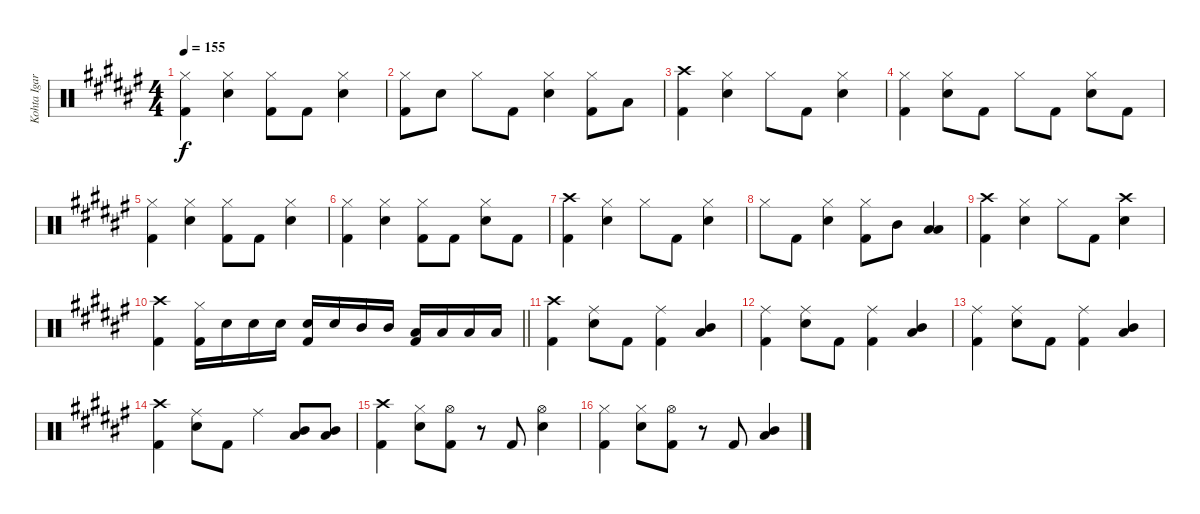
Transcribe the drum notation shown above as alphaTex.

\track ("Kohta Igarashi" "Kohta Igar") {instrument percussion}
\staff {score}
\articulation defaults
\ts (4 4)
\tempo 155
\clef neutral
\ks f#
("Hi-Hat (closed)" "Kick (hit) 2").4{dy f} ("Hi-Hat (closed)" "Electric Snare (hit)").4 ("Hi-Hat (closed)" "Kick (hit) 2").8 "Kick (hit) 2".8 ("Hi-Hat (closed)" "Electric Snare (hit)").4 |
("Hi-Hat (closed)" "Kick (hit) 2").8 "Electric Snare (hit)".8 "Hi-Hat (closed)".8 "Kick (hit) 2".8 ("Hi-Hat (closed)" "Electric Snare (hit)").4 ("Hi-Hat (closed)" "Kick (hit) 2").8 "Low Tom (hit)".8 |
("Crash high (hit)" "Kick (hit) 2").4 ("Hi-Hat (closed)" "Electric Snare (hit)").4 "Hi-Hat (closed)".8 "Kick (hit) 2".8 ("Hi-Hat (closed)" "Electric Snare (hit)").4 |
("Hi-Hat (closed)" "Kick (hit) 2").4 ("Hi-Hat (closed)" "Electric Snare (hit)").8 "Kick (hit) 2".8 "Hi-Hat (closed)".8 "Kick (hit) 2".8 ("Hi-Hat (closed)" "Electric Snare (hit)").8 "Kick (hit) 2".8 |
("Hi-Hat (closed)" "Kick (hit) 2").4 ("Hi-Hat (closed)" "Electric Snare (hit)").4 ("Hi-Hat (closed)" "Kick (hit) 2").8 "Kick (hit) 2".8 ("Hi-Hat (closed)" "Electric Snare (hit)").4 |
("Hi-Hat (closed)" "Kick (hit) 2").4 ("Hi-Hat (closed)" "Electric Snare (hit)").4 ("Hi-Hat (closed)" "Kick (hit) 2").8 "Kick (hit) 2".8 ("Hi-Hat (closed)" "Electric Snare (hit)").8 "Kick (hit) 2".8 |
("Crash high (hit)" "Kick (hit) 2").4 ("Hi-Hat (closed)" "Electric Snare (hit)").4 "Hi-Hat (closed)".8 "Kick (hit) 2".8 ("Hi-Hat (closed)" "Electric Snare (hit)").4 |
"Hi-Hat (closed)".8 "Kick (hit) 2".8 ("Hi-Hat (closed)" "Electric Snare (hit)").4 ("Hi-Hat (closed)" "Kick (hit) 2").8 "Mid Tom (hit)".8 ("Low Tom (hit)" "Low Floor Tom (hit)").4 |
("Crash high (hit)" "Kick (hit) 2").4 ("Hi-Hat (closed)" "Electric Snare (hit)").4 "Hi-Hat (closed)".8 "Kick (hit) 2".8 ("Crash high (hit)" "Electric Snare (hit)").4 |
\barLineRight lightlight
("Crash high (hit)" "Kick (hit) 2").4 ("Hi-Hat (closed)" "Kick (hit) 2").16 "Electric Snare (hit)".16 "Electric Snare (hit)".16 "Electric Snare (hit)".16 ("Electric Snare (hit)" "Kick (hit) 2").16 "Electric Snare (hit)".16 "Mid Tom (hit)".16 "Mid Tom (hit)".16 ("Low Tom (hit)" "Kick (hit) 2").16 "Low Tom (hit)".16 "Low Floor Tom (hit)".16 "Low Floor Tom (hit)".16 |
("Crash high (hit)" "Kick (hit) 2").4 ("Ride (middle)" "Electric Snare (hit)").8 "Kick (hit) 2".8 ("Ride (middle)" "Kick (hit) 2").4 ("Mid Tom (hit)" "Low Floor Tom (hit)").4 |
("Ride (middle)" "Kick (hit) 2").4 ("Ride (middle)" "Electric Snare (hit)").8 "Kick (hit) 2".8 ("Ride (middle)" "Kick (hit) 2").4 ("Mid Tom (hit)" "Low Floor Tom (hit)").4 |
("Ride (middle)" "Kick (hit) 2").4 ("Ride (middle)" "Electric Snare (hit)").8 "Kick (hit) 2".8 ("Ride (middle)" "Kick (hit) 2").4 ("Mid Tom (hit)" "Low Floor Tom (hit)").4 |
("Crash high (hit)" "Kick (hit) 2").4 ("Ride (middle)" "Electric Snare (hit)").8 "Kick (hit) 2".8 "Ride (middle)".4 ("Mid Tom (hit)" "Low Floor Tom (hit)").8 ("Mid Tom (hit)" "Low Floor Tom (hit)").8 |
("Crash high (hit)" "Kick (hit) 2").4 ("Hi-Hat (closed)" "Electric Snare (hit)").8 ("Hi-Hat (open)" "Kick (hit) 2").8 r.8 "Kick (hit) 2".8 ("Hi-Hat (open)" "Electric Snare (hit)").4 |
("Hi-Hat (closed)" "Kick (hit) 2").4 ("Hi-Hat (closed)" "Electric Snare (hit)").8 ("Hi-Hat (open)" "Kick (hit) 2").8 r.8 "Kick (hit) 2".8 ("Mid Tom (hit)" "Low Floor Tom (hit)").4
